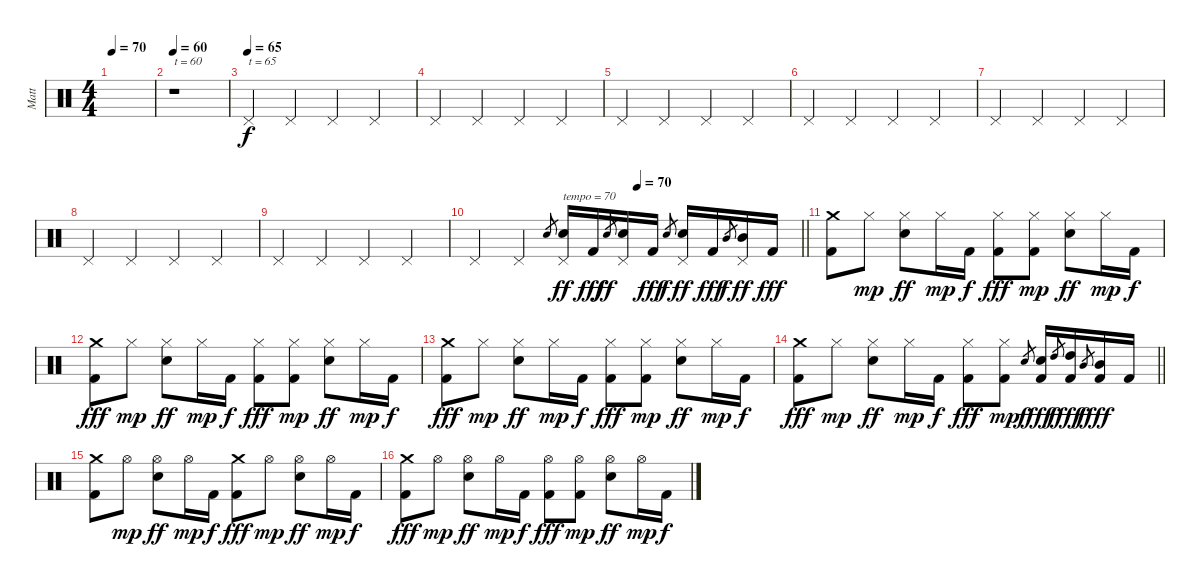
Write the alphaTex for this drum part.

\track ("Matt" "Matt") {instrument percussion}
\staff {score}
\articulation defaults
\ts (4 4)
\tempo 70
\clef neutral
\ks c
|
\tempo 60
r.1{txt "t = 60"} |
\tempo (65)
"Pedal Hi-Hat (hit)".4{txt "t = 65"} "Pedal Hi-Hat (hit)".4 "Pedal Hi-Hat (hit)".4 "Pedal Hi-Hat (hit)".4 |
"Pedal Hi-Hat (hit)".4 "Pedal Hi-Hat (hit)".4 "Pedal Hi-Hat (hit)".4 "Pedal Hi-Hat (hit)".4 |
"Pedal Hi-Hat (hit)".4 "Pedal Hi-Hat (hit)".4 "Pedal Hi-Hat (hit)".4 "Pedal Hi-Hat (hit)".4 |
"Pedal Hi-Hat (hit)".4 "Pedal Hi-Hat (hit)".4 "Pedal Hi-Hat (hit)".4 "Pedal Hi-Hat (hit)".4 |
"Pedal Hi-Hat (hit)".4 "Pedal Hi-Hat (hit)".4 "Pedal Hi-Hat (hit)".4 "Pedal Hi-Hat (hit)".4 |
"Pedal Hi-Hat (hit)".4 "Pedal Hi-Hat (hit)".4 "Pedal Hi-Hat (hit)".4 "Pedal Hi-Hat (hit)".4 |
"Pedal Hi-Hat (hit)".4 "Pedal Hi-Hat (hit)".4 "Pedal Hi-Hat (hit)".4 "Pedal Hi-Hat (hit)".4 |
\tempo (70 0.5)
\barLineRight lightlight "Pedal Hi-Hat (hit)".4{dy f} "Pedal Hi-Hat (hit)".4 "Snare (hit) 2".8{gr}
("Pedal Hi-Hat (hit)" "Snare (hit) 2").16{txt "tempo = 70" dy ff} "Kick (hit) 2".16{dy fff} "Snare (hit) 2".8{gr dy ff} ("Pedal Hi-Hat (hit)" "Snare (hit) 2").16 "Kick (hit) 2".16{dy fff} "Snare (hit) 2".8{gr dy f} ("Pedal Hi-Hat (hit)" "Snare (hit) 2").16{dy ff} "Kick (hit) 2".16{dy fff} "Mid Tom (hit)".8{gr dy f} ("Pedal Hi-Hat (hit)" "Mid Tom (hit)").16{dy ff} "Kick (hit) 2".16{dy fff} |
("Crash medium (hit)" "Kick (hit) 2").8 "Hi-Hat (closed)".8{dy mp} ("Hi-Hat (closed)" "Snare (hit) 2").8{dy ff} "Hi-Hat (closed)".16{dy mp} "Kick (hit) 2".16{dy f} ("Hi-Hat (closed)" "Kick (hit) 2").8{dy fff} ("Hi-Hat (closed)" "Kick (hit) 2").8{dy mp} ("Hi-Hat (closed)" "Snare (hit) 2").8{dy ff} "Hi-Hat (closed)".16{dy mp} "Kick (hit) 2".16{dy f} |
("Crash medium (hit)" "Kick (hit) 2").8{dy fff} "Hi-Hat (closed)".8{dy mp} ("Hi-Hat (closed)" "Snare (hit) 2").8{dy ff} "Hi-Hat (closed)".16{dy mp} "Kick (hit) 2".16{dy f} ("Hi-Hat (closed)" "Kick (hit) 2").8{dy fff} ("Hi-Hat (closed)" "Kick (hit) 2").8{dy mp} ("Hi-Hat (closed)" "Snare (hit) 2").8{dy ff} "Hi-Hat (closed)".16{dy mp} "Kick (hit) 2".16{dy f} |
("Crash medium (hit)" "Kick (hit) 2").8{dy fff} "Hi-Hat (closed)".8{dy mp} ("Hi-Hat (closed)" "Snare (hit) 2").8{dy ff} "Hi-Hat (closed)".16{dy mp} "Kick (hit) 2".16{dy f} ("Hi-Hat (closed)" "Kick (hit) 2").8{dy fff} ("Hi-Hat (closed)" "Kick (hit) 2").8{dy mp} ("Hi-Hat (closed)" "Snare (hit) 2").8{dy ff} "Hi-Hat (closed)".16{dy mp} "Kick (hit) 2".16{dy f} |
\barLineRight lightlight
("Crash medium (hit)" "Kick (hit) 2").8{dy fff} "Hi-Hat (closed)".8{dy mp} ("Hi-Hat (closed)" "Snare (hit) 2").8{dy ff} "Hi-Hat (closed)".16{dy mp} "Kick (hit) 2".16{dy f} ("Hi-Hat (closed)" "Kick (hit) 2").8{dy fff} ("Hi-Hat (closed)" "Kick (hit) 2").8{dy mp} "Snare (hit) 2".8{gr dy f} ("Snare (hit) 2" "Kick (hit) 2").16{dy fff} "High Tom (hit)".8{gr dy f} ("High Tom (hit)" "Kick (hit) 2").16{dy fff} "Mid Tom (hit)".8{gr dy f} ("Mid Tom (hit)" "Kick (hit) 2").16{dy fff} "Kick (hit) 2".16 |
("Crash medium (hit)" "Kick (hit) 2").8 "Hi-Hat (open)".8{dy mp} ("Hi-Hat (open)" "Snare (hit) 2").8{dy ff} "Hi-Hat (open)".16{dy mp} "Kick (hit) 2".16{dy f} ("Crash medium (hit)" "Kick (hit) 2").8{dy fff} "Hi-Hat (open)".8{dy mp} ("Hi-Hat (open)" "Snare (hit) 2").8{dy ff} "Hi-Hat (open)".16{dy mp} "Kick (hit) 2".16{dy f} |
("Crash medium (hit)" "Kick (hit) 2").8{dy fff} "Hi-Hat (open)".8{dy mp} ("Hi-Hat (open)" "Snare (hit) 2").8{dy ff} "Hi-Hat (open)".16{dy mp} "Kick (hit) 2".16{dy f} ("Hi-Hat (open)" "Kick (hit) 2").8{dy fff} ("Hi-Hat (open)" "Kick (hit) 2").8{dy mp} ("Hi-Hat (open)" "Snare (hit) 2").8{dy ff} "Hi-Hat (open)".16{dy mp} "Kick (hit) 2".16{dy f}
